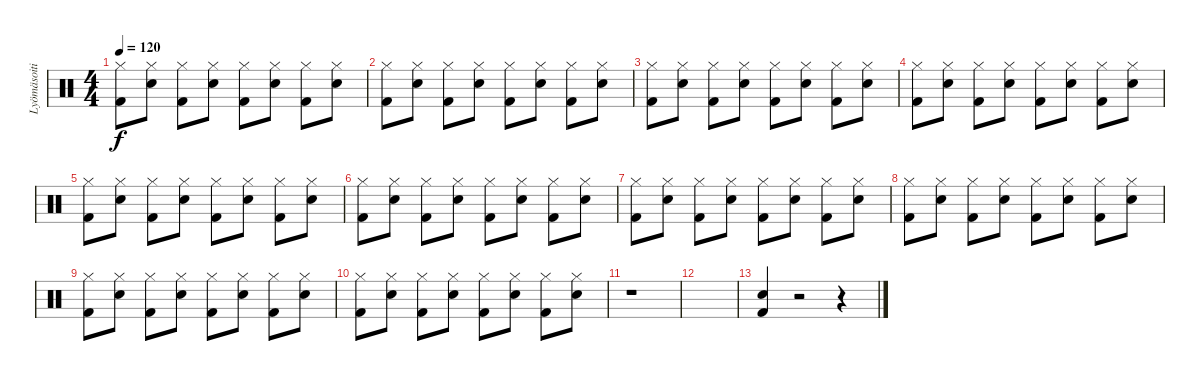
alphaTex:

\track ("Lyömäsoitin" "Lyömäsoiti") {instrument percussion}
\staff {score}
\articulation defaults
\ts (4 4)
\tempo 120
\clef neutral
\ks c
("Hi-Hat (closed)" "Kick (hit) 2").8{dy f} ("Hi-Hat (closed)" "Snare (hit) 2").8 ("Hi-Hat (closed)" "Kick (hit) 2").8 ("Hi-Hat (closed)" "Snare (hit) 2").8 ("Hi-Hat (closed)" "Kick (hit) 2").8 ("Hi-Hat (closed)" "Snare (hit) 2").8 ("Hi-Hat (closed)" "Kick (hit) 2").8 ("Hi-Hat (closed)" "Snare (hit) 2").8 |
("Hi-Hat (closed)" "Kick (hit) 2").8 ("Hi-Hat (closed)" "Snare (hit) 2").8 ("Hi-Hat (closed)" "Kick (hit) 2").8 ("Hi-Hat (closed)" "Snare (hit) 2").8 ("Hi-Hat (closed)" "Kick (hit) 2").8 ("Hi-Hat (closed)" "Snare (hit) 2").8 ("Hi-Hat (closed)" "Kick (hit) 2").8 ("Hi-Hat (closed)" "Snare (hit) 2").8 |
("Hi-Hat (closed)" "Kick (hit) 2").8 ("Hi-Hat (closed)" "Snare (hit) 2").8 ("Hi-Hat (closed)" "Kick (hit) 2").8 ("Hi-Hat (closed)" "Snare (hit) 2").8 ("Hi-Hat (closed)" "Kick (hit) 2").8 ("Hi-Hat (closed)" "Snare (hit) 2").8 ("Hi-Hat (closed)" "Kick (hit) 2").8 ("Hi-Hat (closed)" "Snare (hit) 2").8 |
("Hi-Hat (closed)" "Kick (hit) 2").8 ("Hi-Hat (closed)" "Snare (hit) 2").8 ("Hi-Hat (closed)" "Kick (hit) 2").8 ("Hi-Hat (closed)" "Snare (hit) 2").8 ("Hi-Hat (closed)" "Kick (hit) 2").8 ("Hi-Hat (closed)" "Snare (hit) 2").8 ("Hi-Hat (closed)" "Kick (hit) 2").8 ("Hi-Hat (closed)" "Snare (hit) 2").8 |
("Hi-Hat (closed)" "Kick (hit) 2").8 ("Hi-Hat (closed)" "Snare (hit) 2").8 ("Hi-Hat (closed)" "Kick (hit) 2").8 ("Hi-Hat (closed)" "Snare (hit) 2").8 ("Hi-Hat (closed)" "Kick (hit) 2").8 ("Hi-Hat (closed)" "Snare (hit) 2").8 ("Hi-Hat (closed)" "Kick (hit) 2").8 ("Hi-Hat (closed)" "Snare (hit) 2").8 |
("Hi-Hat (closed)" "Kick (hit) 2").8 ("Hi-Hat (closed)" "Snare (hit) 2").8 ("Hi-Hat (closed)" "Kick (hit) 2").8 ("Hi-Hat (closed)" "Snare (hit) 2").8 ("Hi-Hat (closed)" "Kick (hit) 2").8 ("Hi-Hat (closed)" "Snare (hit) 2").8 ("Hi-Hat (closed)" "Kick (hit) 2").8 ("Hi-Hat (closed)" "Snare (hit) 2").8 |
("Hi-Hat (closed)" "Kick (hit) 2").8 ("Hi-Hat (closed)" "Snare (hit) 2").8 ("Hi-Hat (closed)" "Kick (hit) 2").8 ("Hi-Hat (closed)" "Snare (hit) 2").8 ("Hi-Hat (closed)" "Kick (hit) 2").8 ("Hi-Hat (closed)" "Snare (hit) 2").8 ("Hi-Hat (closed)" "Kick (hit) 2").8 ("Hi-Hat (closed)" "Snare (hit) 2").8 |
("Hi-Hat (closed)" "Kick (hit) 2").8 ("Hi-Hat (closed)" "Snare (hit) 2").8 ("Hi-Hat (closed)" "Kick (hit) 2").8 ("Hi-Hat (closed)" "Snare (hit) 2").8 ("Hi-Hat (closed)" "Kick (hit) 2").8 ("Hi-Hat (closed)" "Snare (hit) 2").8 ("Hi-Hat (closed)" "Kick (hit) 2").8 ("Hi-Hat (closed)" "Snare (hit) 2").8 |
("Hi-Hat (closed)" "Kick (hit) 2").8 ("Hi-Hat (closed)" "Snare (hit) 2").8 ("Hi-Hat (closed)" "Kick (hit) 2").8 ("Hi-Hat (closed)" "Snare (hit) 2").8 ("Hi-Hat (closed)" "Kick (hit) 2").8 ("Hi-Hat (closed)" "Snare (hit) 2").8 ("Hi-Hat (closed)" "Kick (hit) 2").8 ("Hi-Hat (closed)" "Snare (hit) 2").8 |
("Hi-Hat (closed)" "Kick (hit) 2").8 ("Hi-Hat (closed)" "Snare (hit) 2").8 ("Hi-Hat (closed)" "Kick (hit) 2").8 ("Hi-Hat (closed)" "Snare (hit) 2").8 ("Hi-Hat (closed)" "Kick (hit) 2").8 ("Hi-Hat (closed)" "Snare (hit) 2").8 ("Hi-Hat (closed)" "Kick (hit) 2").8 ("Hi-Hat (closed)" "Snare (hit) 2").8 |
r.1 |
|
("Kick (hit) 2" "Snare (hit) 2").4 r.2 r.4
